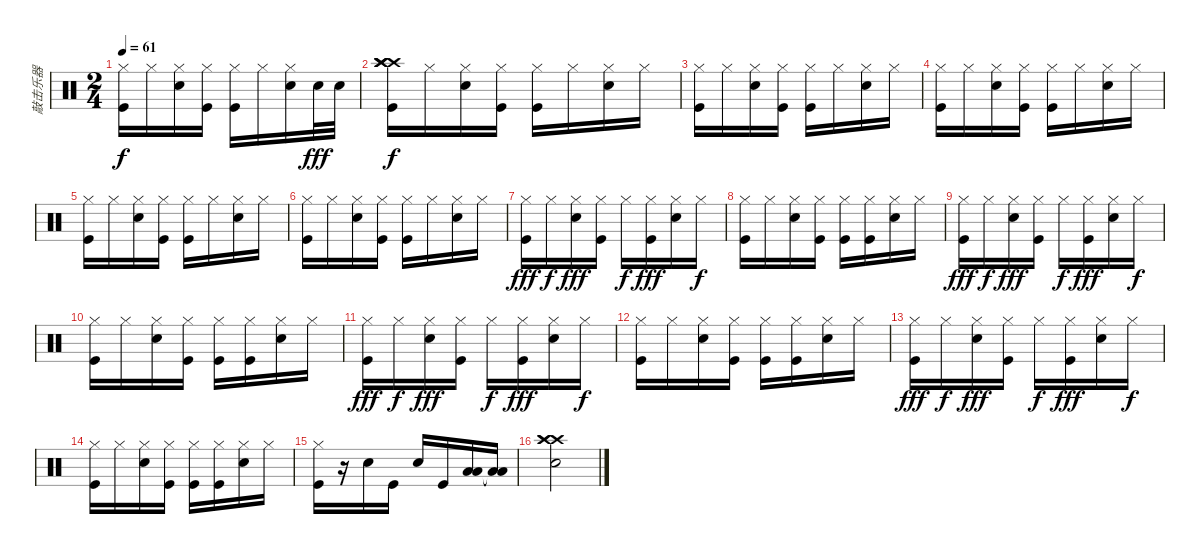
\track ("敲击乐器" "敲击乐器") {instrument percussion}
\staff {score}
\articulation defaults
\ts (2 4)
\tempo 61
\clef neutral
\ks c
("Hi-Hat (closed)" "Kick (hit)").16{dy f} "Hi-Hat (closed)".16 ("Hi-Hat (closed)" "Snare (hit) 2").16 ("Hi-Hat (closed)" "Kick (hit)").16 ("Hi-Hat (closed)" "Kick (hit)").16 "Hi-Hat (closed)".16 ("Hi-Hat (closed)" "Snare (hit) 2").16 "Snare (hit) 2".32{dy fff} "Snare (hit) 2".32 |
("Crash high (hit)" "Crash high (hit)" "Crash high (hit)" "Kick (hit)" "Crash high (hit)").16{dy f} "Hi-Hat (closed)".16 ("Hi-Hat (closed)" "Snare (hit) 2").16 ("Hi-Hat (closed)" "Kick (hit)").16 ("Hi-Hat (closed)" "Kick (hit)").16 "Hi-Hat (closed)".16 ("Hi-Hat (closed)" "Snare (hit) 2").16 "Hi-Hat (closed)".16 |
("Hi-Hat (closed)" "Kick (hit)").16 "Hi-Hat (closed)".16 ("Hi-Hat (closed)" "Snare (hit) 2").16 ("Hi-Hat (closed)" "Kick (hit)").16 ("Hi-Hat (closed)" "Kick (hit)").16 "Hi-Hat (closed)".16 ("Hi-Hat (closed)" "Snare (hit) 2").16 "Hi-Hat (closed)".16 |
("Hi-Hat (closed)" "Kick (hit)").16 "Hi-Hat (closed)".16 ("Hi-Hat (closed)" "Snare (hit) 2").16 ("Hi-Hat (closed)" "Kick (hit)").16 ("Hi-Hat (closed)" "Kick (hit)").16 "Hi-Hat (closed)".16 ("Hi-Hat (closed)" "Snare (hit) 2").16 "Hi-Hat (closed)".16 |
("Hi-Hat (closed)" "Kick (hit)").16 "Hi-Hat (closed)".16 ("Hi-Hat (closed)" "Snare (hit) 2").16 ("Hi-Hat (closed)" "Kick (hit)").16 ("Hi-Hat (closed)" "Kick (hit)").16 "Hi-Hat (closed)".16 ("Hi-Hat (closed)" "Snare (hit) 2").16 "Hi-Hat (closed)".16 |
("Hi-Hat (closed)" "Kick (hit)").16 "Hi-Hat (closed)".16 ("Hi-Hat (closed)" "Snare (hit) 2").16 ("Hi-Hat (closed)" "Kick (hit)").16 ("Hi-Hat (closed)" "Kick (hit)").16 "Hi-Hat (closed)".16 ("Hi-Hat (closed)" "Snare (hit) 2").16 "Hi-Hat (closed)".16 |
("Hi-Hat (closed)" "Kick (hit)").16{dy fff} "Hi-Hat (closed)".16{dy f} ("Hi-Hat (closed)" "Snare (hit) 2").16{dy fff} ("Hi-Hat (closed)" "Kick (hit)").16 "Hi-Hat (closed)".16{dy f} ("Hi-Hat (closed)" "Kick (hit)").16{dy fff} ("Hi-Hat (closed)" "Snare (hit) 2").16 "Hi-Hat (closed)".16{dy f} |
("Hi-Hat (closed)" "Kick (hit)").16 "Hi-Hat (closed)".16 ("Hi-Hat (closed)" "Snare (hit) 2").16 ("Hi-Hat (closed)" "Kick (hit)").16 ("Hi-Hat (closed)" "Kick (hit)").16 ("Hi-Hat (closed)" "Kick (hit)").16 ("Hi-Hat (closed)" "Snare (hit) 2").16 "Hi-Hat (closed)".16 |
("Hi-Hat (closed)" "Kick (hit)").16{dy fff} "Hi-Hat (closed)".16{dy f} ("Hi-Hat (closed)" "Snare (hit) 2").16{dy fff} ("Hi-Hat (closed)" "Kick (hit)").16 "Hi-Hat (closed)".16{dy f} ("Hi-Hat (closed)" "Kick (hit)").16{dy fff} ("Hi-Hat (closed)" "Snare (hit) 2").16 "Hi-Hat (closed)".16{dy f} |
("Hi-Hat (closed)" "Kick (hit)").16 "Hi-Hat (closed)".16 ("Hi-Hat (closed)" "Snare (hit) 2").16 ("Hi-Hat (closed)" "Kick (hit)").16 ("Hi-Hat (closed)" "Kick (hit)").16 ("Hi-Hat (closed)" "Kick (hit)").16 ("Hi-Hat (closed)" "Snare (hit) 2").16 "Hi-Hat (closed)".16 |
("Hi-Hat (closed)" "Kick (hit)").16{dy fff} "Hi-Hat (closed)".16{dy f} ("Hi-Hat (closed)" "Snare (hit) 2").16{dy fff} ("Hi-Hat (closed)" "Kick (hit)").16 "Hi-Hat (closed)".16{dy f} ("Hi-Hat (closed)" "Kick (hit)").16{dy fff} ("Hi-Hat (closed)" "Snare (hit) 2").16 "Hi-Hat (closed)".16{dy f} |
("Hi-Hat (closed)" "Kick (hit)").16 "Hi-Hat (closed)".16 ("Hi-Hat (closed)" "Snare (hit) 2").16 ("Hi-Hat (closed)" "Kick (hit)").16 ("Hi-Hat (closed)" "Kick (hit)").16 ("Hi-Hat (closed)" "Kick (hit)").16 ("Hi-Hat (closed)" "Snare (hit) 2").16 "Hi-Hat (closed)".16 |
("Hi-Hat (closed)" "Kick (hit)").16{dy fff} "Hi-Hat (closed)".16{dy f} ("Hi-Hat (closed)" "Snare (hit) 2").16{dy fff} ("Hi-Hat (closed)" "Kick (hit)").16 "Hi-Hat (closed)".16{dy f} ("Hi-Hat (closed)" "Kick (hit)").16{dy fff} ("Hi-Hat (closed)" "Snare (hit) 2").16 "Hi-Hat (closed)".16{dy f} |
("Hi-Hat (closed)" "Kick (hit)").16 "Hi-Hat (closed)".16 ("Hi-Hat (closed)" "Snare (hit) 2").16 ("Hi-Hat (closed)" "Kick (hit)").16 ("Hi-Hat (closed)" "Kick (hit)").16 ("Hi-Hat (closed)" "Kick (hit)").16 ("Hi-Hat (closed)" "Snare (hit) 2").16 "Hi-Hat (closed)".16 |
("Hi-Hat (closed)" "Kick (hit)").16 r.16 "Snare (hit) 2".16 "Kick (hit)".16 "Snare (hit) 2".16 "Kick (hit)".16 ("Low Floor Tom (hit)" "Low Floor Tom (hit)").16 ("Low Floor Tom (hit)"{t} "Low Floor Tom (hit)"{t}).16 |
("Crash high (hit)" "Snare (hit) 2" "Crash high (hit)" "Crash high (hit)").2
